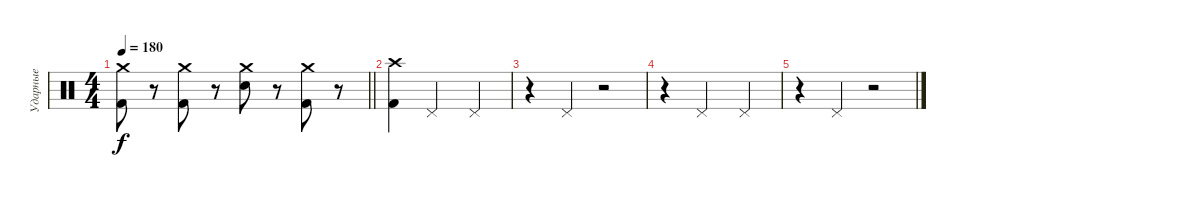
\track ("Ударные" "Ударные") {instrument percussion}
\staff {score}
\articulation defaults
\ts (4 4)
\tempo 180
\clef neutral
\barLineRight lightlight
\ks c
("Crash medium (hit)" "Kick (hit) 2").8{dy f} r.8 ("Crash medium (hit)" "Kick (hit) 2").8 r.8 ("Crash medium (hit)" "Snare (hit) 2").8 r.8 ("Crash medium (hit)" "Kick (hit) 2").8 r.8 |
("Crash high (hit)" "Kick (hit) 2").4 "Pedal Hi-Hat (hit)".2 "Pedal Hi-Hat (hit)".4 |
r.4 "Pedal Hi-Hat (hit)".4 r.2 |
r.4 "Pedal Hi-Hat (hit)".2 "Pedal Hi-Hat (hit)".4 |
r.4 "Pedal Hi-Hat (hit)".4 r.2
